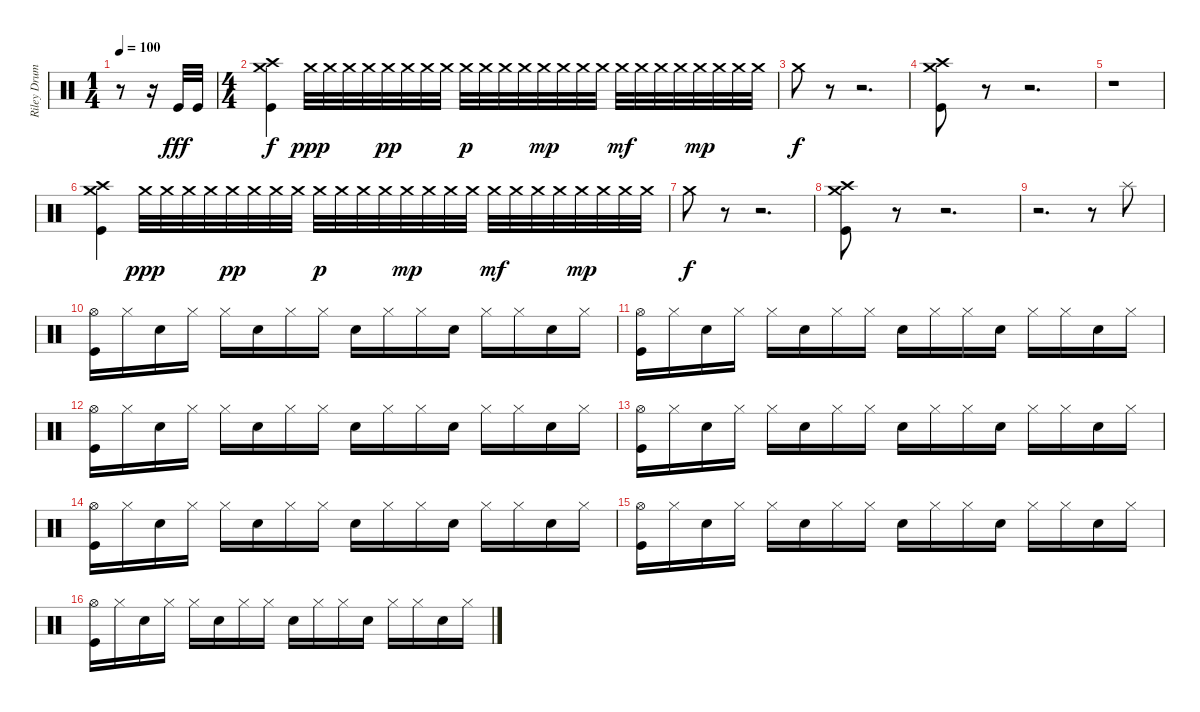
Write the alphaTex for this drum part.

\track ("Riley Drums" "Riley Drum") {instrument percussion}
\staff {score}
\articulation defaults
\ts (1 4)
\tempo 100
\clef neutral
\ks c
r.8{dy fff} r.16 "Kick (hit)".32 "Kick (hit)".32 |
\ts (4 4)
("Crash medium (hit)" "Crash high (hit)" "Kick (hit)").4{dy f} "Crash medium (hit)".32{dy ppp} "Crash medium (hit)".32 "Crash medium (hit)".32 "Crash medium (hit)".32 "Crash medium (hit)".32{dy pp} "Crash medium (hit)".32 "Crash medium (hit)".32 "Crash medium (hit)".32 "Crash medium (hit)".32{dy p} "Crash medium (hit)".32 "Crash medium (hit)".32 "Crash medium (hit)".32 "Crash medium (hit)".32{dy mp} "Crash medium (hit)".32 "Crash medium (hit)".32 "Crash medium (hit)".32 "Crash medium (hit)".32{dy mf} "Crash medium (hit)".32 "Crash medium (hit)".32 "Crash medium (hit)".32 "Crash medium (hit)".32{dy mp} "Crash medium (hit)".32 "Crash medium (hit)".32 "Crash medium (hit)".32 |
"Crash medium (hit)".8{dy f} r.8 r.2{d} |
("Crash medium (hit)" "Crash high (hit)" "Kick (hit)").8 r.8{volume 0} r.2{d} |
r.1{volume 16} |
("Crash medium (hit)" "Crash high (hit)" "Kick (hit)").4 "Crash medium (hit)".32{dy ppp} "Crash medium (hit)".32 "Crash medium (hit)".32 "Crash medium (hit)".32 "Crash medium (hit)".32{dy pp} "Crash medium (hit)".32 "Crash medium (hit)".32 "Crash medium (hit)".32 "Crash medium (hit)".32{dy p} "Crash medium (hit)".32 "Crash medium (hit)".32 "Crash medium (hit)".32 "Crash medium (hit)".32{dy mp} "Crash medium (hit)".32 "Crash medium (hit)".32 "Crash medium (hit)".32 "Crash medium (hit)".32{dy mf} "Crash medium (hit)".32 "Crash medium (hit)".32 "Crash medium (hit)".32 "Crash medium (hit)".32{dy mp} "Crash medium (hit)".32 "Crash medium (hit)".32 "Crash medium (hit)".32 |
"Crash medium (hit)".8{dy f} r.8 r.2{d} |
("Crash medium (hit)" "Crash high (hit)" "Kick (hit)").8 r.8{volume 0} r.2{d} |
r.2{d volume 16} r.8 "Splash (hit)".8 |
("Hi-Hat (open)" "Kick (hit)").16 "Hi-Hat (closed)".16 "Electric Snare (hit)".16 "Hi-Hat (closed)".16 "Hi-Hat (closed)".16 "Electric Snare (hit)".16 "Hi-Hat (closed)".16 "Hi-Hat (closed)".16 "Electric Snare (hit)".16 "Hi-Hat (closed)".16 "Hi-Hat (closed)".16 "Electric Snare (hit)".16 "Hi-Hat (closed)".16 "Hi-Hat (closed)".16 "Electric Snare (hit)".16 "Hi-Hat (closed)".16 |
("Hi-Hat (open)" "Kick (hit)").16 "Hi-Hat (closed)".16 "Electric Snare (hit)".16 "Hi-Hat (closed)".16 "Hi-Hat (closed)".16 "Electric Snare (hit)".16 "Hi-Hat (closed)".16 "Hi-Hat (closed)".16 "Electric Snare (hit)".16 "Hi-Hat (closed)".16 "Hi-Hat (closed)".16 "Electric Snare (hit)".16 "Hi-Hat (closed)".16 "Hi-Hat (closed)".16 "Electric Snare (hit)".16 "Hi-Hat (closed)".16 |
("Hi-Hat (open)" "Kick (hit)").16 "Hi-Hat (closed)".16 "Electric Snare (hit)".16 "Hi-Hat (closed)".16 "Hi-Hat (closed)".16 "Electric Snare (hit)".16 "Hi-Hat (closed)".16 "Hi-Hat (closed)".16 "Electric Snare (hit)".16 "Hi-Hat (closed)".16 "Hi-Hat (closed)".16 "Electric Snare (hit)".16 "Hi-Hat (closed)".16 "Hi-Hat (closed)".16 "Electric Snare (hit)".16 "Hi-Hat (closed)".16 |
("Hi-Hat (open)" "Kick (hit)").16 "Hi-Hat (closed)".16 "Electric Snare (hit)".16 "Hi-Hat (closed)".16 "Hi-Hat (closed)".16 "Electric Snare (hit)".16 "Hi-Hat (closed)".16 "Hi-Hat (closed)".16 "Electric Snare (hit)".16 "Hi-Hat (closed)".16 "Hi-Hat (closed)".16 "Electric Snare (hit)".16 "Hi-Hat (closed)".16 "Hi-Hat (closed)".16 "Electric Snare (hit)".16 "Hi-Hat (closed)".16 |
("Hi-Hat (open)" "Kick (hit)").16 "Hi-Hat (closed)".16 "Electric Snare (hit)".16 "Hi-Hat (closed)".16 "Hi-Hat (closed)".16 "Electric Snare (hit)".16 "Hi-Hat (closed)".16 "Hi-Hat (closed)".16 "Electric Snare (hit)".16 "Hi-Hat (closed)".16 "Hi-Hat (closed)".16 "Electric Snare (hit)".16 "Hi-Hat (closed)".16 "Hi-Hat (closed)".16 "Electric Snare (hit)".16 "Hi-Hat (closed)".16 |
("Hi-Hat (open)" "Kick (hit)").16 "Hi-Hat (closed)".16 "Electric Snare (hit)".16 "Hi-Hat (closed)".16 "Hi-Hat (closed)".16 "Electric Snare (hit)".16 "Hi-Hat (closed)".16 "Hi-Hat (closed)".16 "Electric Snare (hit)".16 "Hi-Hat (closed)".16 "Hi-Hat (closed)".16 "Electric Snare (hit)".16 "Hi-Hat (closed)".16 "Hi-Hat (closed)".16 "Electric Snare (hit)".16 "Hi-Hat (closed)".16 |
("Hi-Hat (open)" "Kick (hit)").16 "Hi-Hat (closed)".16 "Electric Snare (hit)".16 "Hi-Hat (closed)".16 "Hi-Hat (closed)".16 "Electric Snare (hit)".16 "Hi-Hat (closed)".16 "Hi-Hat (closed)".16 "Electric Snare (hit)".16 "Hi-Hat (closed)".16 "Hi-Hat (closed)".16 "Electric Snare (hit)".16 "Hi-Hat (closed)".16 "Hi-Hat (closed)".16 "Electric Snare (hit)".16 "Hi-Hat (closed)".16
